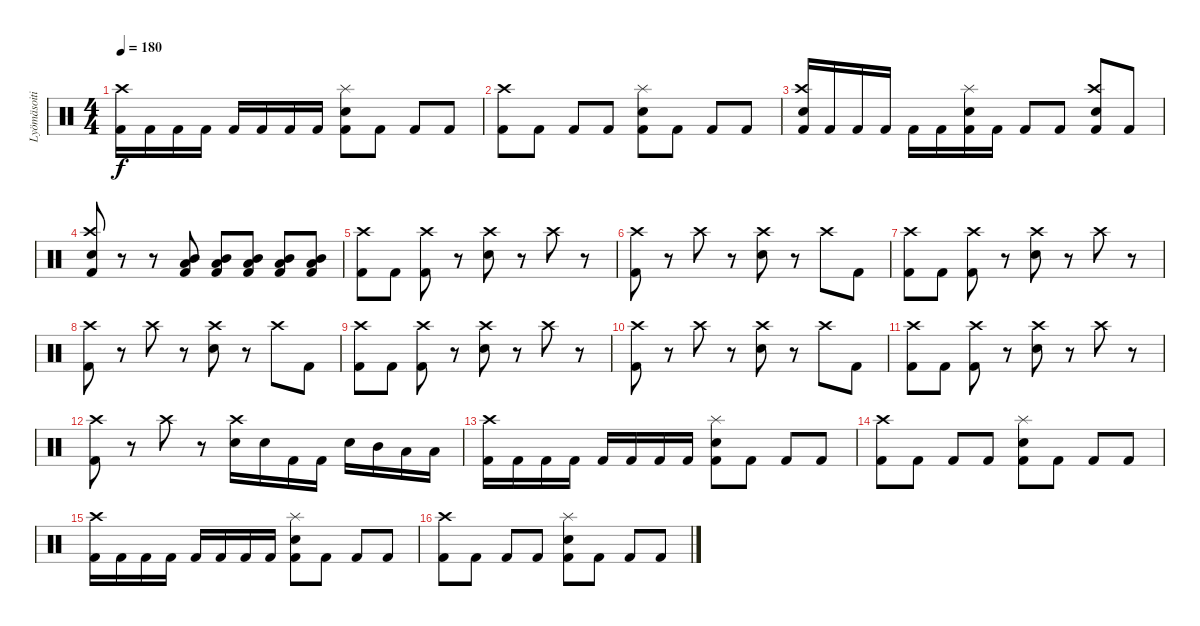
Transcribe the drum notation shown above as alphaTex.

\track ("Lyömäsoitin" "Lyömäsoiti") {instrument percussion}
\staff {score}
\articulation defaults
\ts (4 4)
\tempo 180
\clef neutral
\ks c
("Kick (hit) 2" "Crash high (hit)").16{dy f} "Kick (hit) 2".16 "Kick (hit) 2".16 "Kick (hit) 2".16 "Kick (hit) 2".16 "Kick (hit) 2".16 "Kick (hit) 2".16 "Kick (hit) 2".16 ("Kick (hit) 2" "Electric Snare (hit)" "Splash (hit)").8 "Kick (hit) 2".8 "Kick (hit) 2".8 "Kick (hit) 2".8 |
("Kick (hit) 2" "Crash high (hit)").8 "Kick (hit) 2".8 "Kick (hit) 2".8 "Kick (hit) 2".8 ("Kick (hit) 2" "Electric Snare (hit)" "Splash (hit)").8 "Kick (hit) 2".8 "Kick (hit) 2".8 "Kick (hit) 2".8 |
("Kick (hit) 2" "Electric Snare (hit)" "Crash high (hit)").16 "Kick (hit) 2".16 "Kick (hit) 2".16 "Kick (hit) 2".16 "Kick (hit) 2".16 "Kick (hit) 2".16 ("Kick (hit) 2" "Electric Snare (hit)" "Splash (hit)").16 "Kick (hit) 2".16 "Kick (hit) 2".8 "Kick (hit) 2".8 ("Kick (hit) 2" "Electric Snare (hit)" "Crash high (hit)").8 "Kick (hit) 2".8 |
("Kick (hit) 2" "Electric Snare (hit)" "Crash high (hit)").8 r.8 r.8 ("Kick (hit) 2" "Mid Tom (hit)" "Low Tom (hit)").8 ("Kick (hit) 2" "Mid Tom (hit)" "Low Tom (hit)").8 ("Kick (hit) 2" "Mid Tom (hit)" "Low Tom (hit)").8 ("Kick (hit) 2" "Mid Tom (hit)" "Low Tom (hit)").8 ("Kick (hit) 2" "Mid Tom (hit)" "Low Tom (hit)").8 |
("Kick (hit) 2" "Crash high (hit)").8 "Kick (hit) 2".8 ("Kick (hit) 2" "Crash high (hit)").8 r.8 ("Electric Snare (hit)" "Crash high (hit)").8 r.8 "Crash high (hit)".8 r.8 |
("Kick (hit) 2" "Crash high (hit)").8 r.8 "Crash high (hit)".8 r.8 ("Electric Snare (hit)" "Crash high (hit)").8 r.8 "Crash high (hit)".8 "Kick (hit) 2".8 |
("Kick (hit) 2" "Crash high (hit)").8 "Kick (hit) 2".8 ("Kick (hit) 2" "Crash high (hit)").8 r.8 ("Electric Snare (hit)" "Crash high (hit)").8 r.8 "Crash high (hit)".8 r.8 |
("Kick (hit) 2" "Crash high (hit)").8 r.8 "Crash high (hit)".8 r.8 ("Electric Snare (hit)" "Crash high (hit)").8 r.8 "Crash high (hit)".8 "Kick (hit) 2".8 |
("Kick (hit) 2" "Crash high (hit)").8 "Kick (hit) 2".8 ("Kick (hit) 2" "Crash high (hit)").8 r.8 ("Electric Snare (hit)" "Crash high (hit)").8 r.8 "Crash high (hit)".8 r.8 |
("Kick (hit) 2" "Crash high (hit)").8 r.8 "Crash high (hit)".8 r.8 ("Electric Snare (hit)" "Crash high (hit)").8 r.8 "Crash high (hit)".8 "Kick (hit) 2".8 |
("Kick (hit) 2" "Crash high (hit)").8 "Kick (hit) 2".8 ("Kick (hit) 2" "Crash high (hit)").8 r.8 ("Electric Snare (hit)" "Crash high (hit)").8 r.8 "Crash high (hit)".8 r.8 |
("Kick (hit) 2" "Crash high (hit)").8 r.8 "Crash high (hit)".8 r.8 ("Electric Snare (hit)" "Crash high (hit)").16 "Electric Snare (hit)".16 "Kick (hit) 2".16 "Kick (hit) 2".16 "Electric Snare (hit)".16 "Mid Tom (hit)".16 "Low Tom (hit)".16 "Low Tom (hit)".16 |
("Kick (hit) 2" "Crash high (hit)").16 "Kick (hit) 2".16 "Kick (hit) 2".16 "Kick (hit) 2".16 "Kick (hit) 2".16 "Kick (hit) 2".16 "Kick (hit) 2".16 "Kick (hit) 2".16 ("Kick (hit) 2" "Electric Snare (hit)" "Splash (hit)").8 "Kick (hit) 2".8 "Kick (hit) 2".8 "Kick (hit) 2".8 |
("Kick (hit) 2" "Crash high (hit)").8 "Kick (hit) 2".8 "Kick (hit) 2".8 "Kick (hit) 2".8 ("Kick (hit) 2" "Electric Snare (hit)" "Splash (hit)").8 "Kick (hit) 2".8 "Kick (hit) 2".8 "Kick (hit) 2".8 |
("Kick (hit) 2" "Crash high (hit)").16 "Kick (hit) 2".16 "Kick (hit) 2".16 "Kick (hit) 2".16 "Kick (hit) 2".16 "Kick (hit) 2".16 "Kick (hit) 2".16 "Kick (hit) 2".16 ("Kick (hit) 2" "Electric Snare (hit)" "Splash (hit)").8 "Kick (hit) 2".8 "Kick (hit) 2".8 "Kick (hit) 2".8 |
("Kick (hit) 2" "Crash high (hit)").8 "Kick (hit) 2".8 "Kick (hit) 2".8 "Kick (hit) 2".8 ("Kick (hit) 2" "Electric Snare (hit)" "Splash (hit)").8 "Kick (hit) 2".8 "Kick (hit) 2".8 "Kick (hit) 2".8
